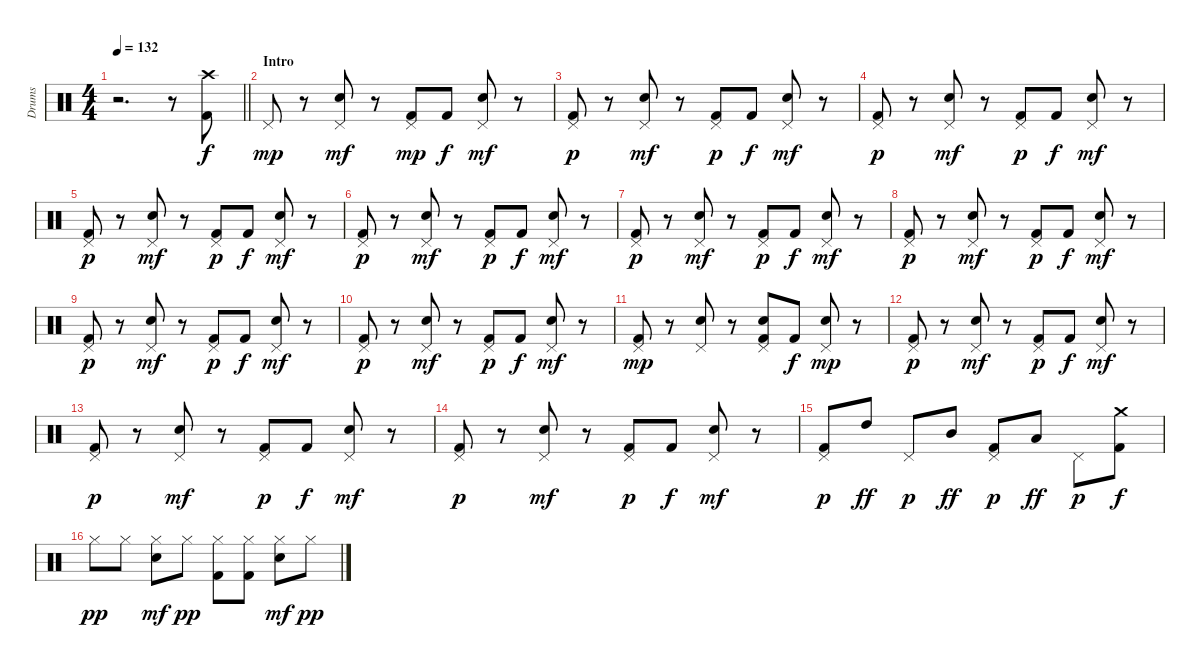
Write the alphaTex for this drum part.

\track ("Drums" "Drums") {instrument percussion}
\staff {score}
\articulation defaults
\ts (4 4)
\tempo 132
\clef neutral
\barLineRight lightlight
\ks c
r.2{d dy f} r.8 ("Crash high (hit)" "Kick (hit) 2").8 |
\section ("" "Intro")
"Pedal Hi-Hat (hit)".8{dy mp} r.8 ("Pedal Hi-Hat (hit)" "Snare (hit) 2").8{dy mf} r.8 ("Pedal Hi-Hat (hit)" "Kick (hit) 2").8{dy mp} "Kick (hit) 2".8{dy f} ("Pedal Hi-Hat (hit)" "Snare (hit) 2").8{dy mf} r.8 |
("Pedal Hi-Hat (hit)" "Kick (hit) 2").8{dy p} r.8 ("Pedal Hi-Hat (hit)" "Snare (hit) 2").8{dy mf} r.8 ("Pedal Hi-Hat (hit)" "Kick (hit) 2").8{dy p} "Kick (hit) 2".8{dy f} ("Pedal Hi-Hat (hit)" "Snare (hit) 2").8{dy mf} r.8 |
("Pedal Hi-Hat (hit)" "Kick (hit) 2").8{dy p} r.8 ("Pedal Hi-Hat (hit)" "Snare (hit) 2").8{dy mf} r.8 ("Pedal Hi-Hat (hit)" "Kick (hit) 2").8{dy p} "Kick (hit) 2".8{dy f} ("Pedal Hi-Hat (hit)" "Snare (hit) 2").8{dy mf} r.8 |
("Pedal Hi-Hat (hit)" "Kick (hit) 2").8{dy p} r.8 ("Pedal Hi-Hat (hit)" "Snare (hit) 2").8{dy mf} r.8 ("Pedal Hi-Hat (hit)" "Kick (hit) 2").8{dy p} "Kick (hit) 2".8{dy f} ("Pedal Hi-Hat (hit)" "Snare (hit) 2").8{dy mf} r.8 |
("Pedal Hi-Hat (hit)" "Kick (hit) 2").8{dy p} r.8 ("Pedal Hi-Hat (hit)" "Snare (hit) 2").8{dy mf} r.8 ("Pedal Hi-Hat (hit)" "Kick (hit) 2").8{dy p} "Kick (hit) 2".8{dy f} ("Pedal Hi-Hat (hit)" "Snare (hit) 2").8{dy mf} r.8 |
("Pedal Hi-Hat (hit)" "Kick (hit) 2").8{dy p} r.8 ("Pedal Hi-Hat (hit)" "Snare (hit) 2").8{dy mf} r.8 ("Pedal Hi-Hat (hit)" "Kick (hit) 2").8{dy p} "Kick (hit) 2".8{dy f} ("Pedal Hi-Hat (hit)" "Snare (hit) 2").8{dy mf} r.8 |
("Pedal Hi-Hat (hit)" "Kick (hit) 2").8{dy p} r.8 ("Pedal Hi-Hat (hit)" "Snare (hit) 2").8{dy mf} r.8 ("Pedal Hi-Hat (hit)" "Kick (hit) 2").8{dy p} "Kick (hit) 2".8{dy f} ("Pedal Hi-Hat (hit)" "Snare (hit) 2").8{dy mf} r.8 |
("Pedal Hi-Hat (hit)" "Kick (hit) 2").8{dy p} r.8 ("Pedal Hi-Hat (hit)" "Snare (hit) 2").8{dy mf} r.8 ("Pedal Hi-Hat (hit)" "Kick (hit) 2").8{dy p} "Kick (hit) 2".8{dy f} ("Pedal Hi-Hat (hit)" "Snare (hit) 2").8{dy mf} r.8 |
("Pedal Hi-Hat (hit)" "Kick (hit) 2").8{dy p} r.8 ("Pedal Hi-Hat (hit)" "Snare (hit) 2").8{dy mf} r.8 ("Pedal Hi-Hat (hit)" "Kick (hit) 2").8{dy p} "Kick (hit) 2".8{dy f} ("Pedal Hi-Hat (hit)" "Snare (hit) 2").8{dy mf} r.8 |
("Pedal Hi-Hat (hit)" "Kick (hit) 2").8{dy mp} r.8 ("Pedal Hi-Hat (hit)" "Snare (hit) 2").8 r.8 ("Pedal Hi-Hat (hit)" "Snare (hit) 2" "Kick (hit) 2").8 "Kick (hit) 2".8{dy f} ("Pedal Hi-Hat (hit)" "Snare (hit) 2").8{dy mp} r.8 |
("Pedal Hi-Hat (hit)" "Kick (hit) 2").8{dy p} r.8 ("Pedal Hi-Hat (hit)" "Snare (hit) 2").8{dy mf} r.8 ("Pedal Hi-Hat (hit)" "Kick (hit) 2").8{dy p} "Kick (hit) 2".8{dy f} ("Pedal Hi-Hat (hit)" "Snare (hit) 2").8{dy mf} r.8 |
("Pedal Hi-Hat (hit)" "Kick (hit) 2").8{dy p} r.8 ("Pedal Hi-Hat (hit)" "Snare (hit) 2").8{dy mf} r.8 ("Pedal Hi-Hat (hit)" "Kick (hit) 2").8{dy p} "Kick (hit) 2".8{dy f} ("Pedal Hi-Hat (hit)" "Snare (hit) 2").8{dy mf} r.8 |
("Pedal Hi-Hat (hit)" "Kick (hit) 2").8{dy p} r.8 ("Pedal Hi-Hat (hit)" "Snare (hit) 2").8{dy mf} r.8 ("Pedal Hi-Hat (hit)" "Kick (hit) 2").8{dy p} "Kick (hit) 2".8{dy f} ("Pedal Hi-Hat (hit)" "Snare (hit) 2").8{dy mf} r.8 |
("Pedal Hi-Hat (hit)" "Kick (hit) 2").8{dy p} "High Tom (hit)".8{dy ff} "Pedal Hi-Hat (hit)".8{dy p} "Mid Tom (hit)".8{dy ff} ("Pedal Hi-Hat (hit)" "Kick (hit) 2").8{dy p} "Low Tom (hit)".8{dy ff} "Pedal Hi-Hat (hit)".8{dy p} ("Crash medium (hit)" "Kick (hit) 2").8{dy f} |
"Hi-Hat (closed)".8{dy pp} "Hi-Hat (closed)".8 ("Hi-Hat (closed)" "Snare (hit) 2").8{dy mf} "Hi-Hat (closed)".8{dy pp} ("Hi-Hat (closed)" "Kick (hit) 2").8 ("Hi-Hat (closed)" "Kick (hit) 2").8 ("Hi-Hat (closed)" "Snare (hit) 2").8{dy mf} "Hi-Hat (closed)".8{dy pp}
